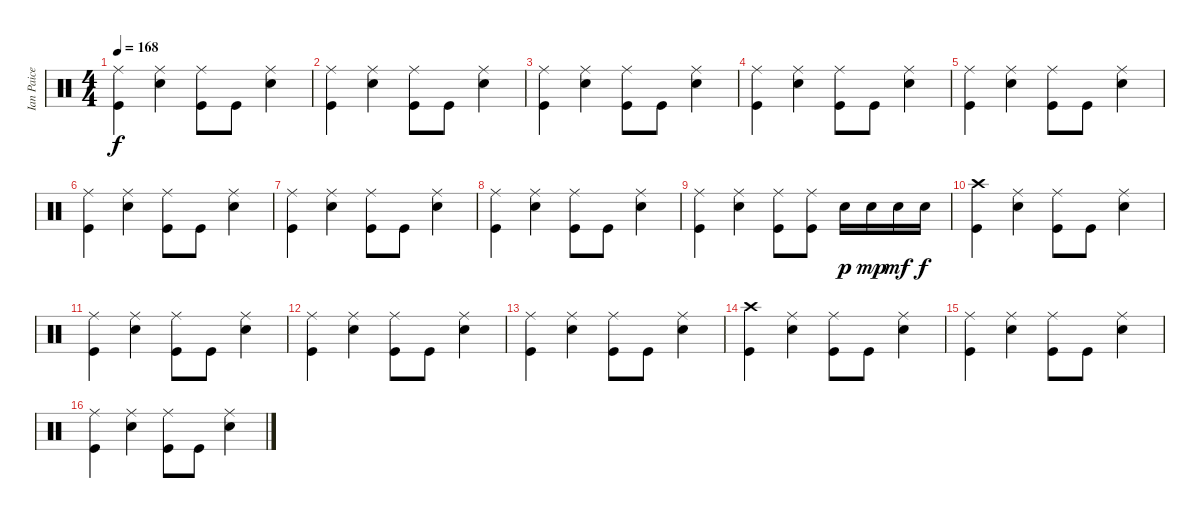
\track ("Ian Paice" "Ian Paice") {instrument percussion}
\staff {score}
\articulation defaults
\ts (4 4)
\tempo 168
\clef neutral
\ks c
("Kick (hit)" "Ride (middle)").4{dy f} ("Ride (middle)" "Snare (hit) 2").4 ("Ride (middle)" "Kick (hit)").8 "Kick (hit)".8 ("Ride (middle)" "Snare (hit) 2").4 |
("Kick (hit)" "Ride (middle)").4 ("Ride (middle)" "Snare (hit) 2").4 ("Ride (middle)" "Kick (hit)").8 "Kick (hit)".8 ("Ride (middle)" "Snare (hit) 2").4 |
("Kick (hit)" "Ride (middle)").4 ("Ride (middle)" "Snare (hit) 2").4 ("Ride (middle)" "Kick (hit)").8 "Kick (hit)".8 ("Ride (middle)" "Snare (hit) 2").4 |
("Kick (hit)" "Ride (middle)").4 ("Ride (middle)" "Snare (hit) 2").4 ("Ride (middle)" "Kick (hit)").8 "Kick (hit)".8 ("Ride (middle)" "Snare (hit) 2").4 |
("Kick (hit)" "Ride (middle)").4 ("Ride (middle)" "Snare (hit) 2").4 ("Ride (middle)" "Kick (hit)").8 "Kick (hit)".8 ("Ride (middle)" "Snare (hit) 2").4 |
("Kick (hit)" "Ride (middle)").4 ("Ride (middle)" "Snare (hit) 2").4 ("Ride (middle)" "Kick (hit)").8 "Kick (hit)".8 ("Ride (middle)" "Snare (hit) 2").4 |
("Kick (hit)" "Ride (middle)").4 ("Ride (middle)" "Snare (hit) 2").4 ("Ride (middle)" "Kick (hit)").8 "Kick (hit)".8 ("Ride (middle)" "Snare (hit) 2").4 |
("Kick (hit)" "Ride (middle)").4 ("Ride (middle)" "Snare (hit) 2").4 ("Ride (middle)" "Kick (hit)").8 "Kick (hit)".8 ("Ride (middle)" "Snare (hit) 2").4 |
("Kick (hit)" "Ride (middle)").4 ("Ride (middle)" "Snare (hit) 2").4 ("Kick (hit)" "Ride (middle)").8 ("Kick (hit)" "Ride (middle)").8 "Snare (hit) 2".16{dy p} "Snare (hit) 2".16{dy mp} "Snare (hit) 2".16{dy mf} "Snare (hit) 2".16{dy f} |
("Crash high (hit)" "Kick (hit)").4 ("Ride (middle)" "Snare (hit) 2").4 ("Ride (middle)" "Kick (hit)").8 "Kick (hit)".8 ("Ride (middle)" "Snare (hit) 2").4 |
("Kick (hit)" "Ride (middle)").4 ("Ride (middle)" "Snare (hit) 2").4 ("Ride (middle)" "Kick (hit)").8 "Kick (hit)".8 ("Ride (middle)" "Snare (hit) 2").4 |
("Kick (hit)" "Ride (middle)").4 ("Ride (middle)" "Snare (hit) 2").4 ("Ride (middle)" "Kick (hit)").8 "Kick (hit)".8 ("Ride (middle)" "Snare (hit) 2").4 |
("Kick (hit)" "Ride (middle)").4 ("Ride (middle)" "Snare (hit) 2").4 ("Ride (middle)" "Kick (hit)").8 "Kick (hit)".8 ("Ride (middle)" "Snare (hit) 2").4 |
("Crash high (hit)" "Kick (hit)").4 ("Snare (hit) 2" "Ride (middle)").4 ("Kick (hit)" "Ride (middle)").8 "Kick (hit)".8 ("Snare (hit) 2" "Ride (middle)").4 |
("Kick (hit)" "Ride (middle)").4 ("Ride (middle)" "Snare (hit) 2").4 ("Ride (middle)" "Kick (hit)").8 "Kick (hit)".8 ("Ride (middle)" "Snare (hit) 2").4 |
("Kick (hit)" "Ride (middle)").4 ("Ride (middle)" "Snare (hit) 2").4 ("Ride (middle)" "Kick (hit)").8 "Kick (hit)".8 ("Ride (middle)" "Snare (hit) 2").4
